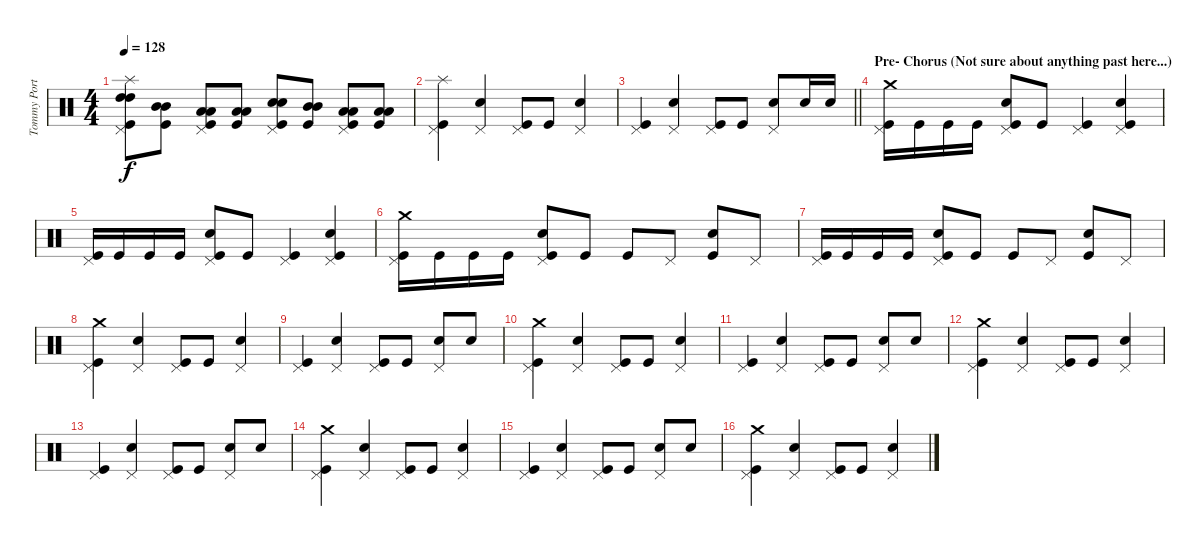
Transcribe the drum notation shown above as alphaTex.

\track ("Tommy Portimo - Drums" "Tommy Port") {instrument percussion}
\staff {score}
\articulation defaults
\ts (4 4)
\tempo 128
\clef neutral
\ks c
("Splash (hit)" "Pedal Hi-Hat (hit)" "High Tom (hit)" "High Tom (hit)" "Kick (hit)").8{dy f} ("Mid Tom (hit)" "Mid Tom (hit)" "Kick (hit)").8 ("Pedal Hi-Hat (hit)" "Low Tom (hit)" "Low Tom (hit)" "Kick (hit)").8 ("Low Tom (hit)" "Low Tom (hit)" "Kick (hit)").8 ("Pedal Hi-Hat (hit)" "Electric Snare (hit)" "Electric Snare (hit)" "Kick (hit)").8 ("Mid Tom (hit)" "Mid Tom (hit)" "Kick (hit)").8 ("Pedal Hi-Hat (hit)" "Low Tom (hit)" "Low Tom (hit)" "Kick (hit)").8 ("Low Tom (hit)" "Low Tom (hit)" "Kick (hit)").8 |
("Splash (hit)" "Pedal Hi-Hat (hit)" "Kick (hit)").4 ("Pedal Hi-Hat (hit)" "Electric Snare (hit)").4 ("Pedal Hi-Hat (hit)" "Kick (hit)").8 "Kick (hit)".8 ("Pedal Hi-Hat (hit)" "Electric Snare (hit)").4 |
\barLineRight lightlight
("Pedal Hi-Hat (hit)" "Kick (hit)").4 ("Pedal Hi-Hat (hit)" "Electric Snare (hit)").4 ("Pedal Hi-Hat (hit)" "Kick (hit)").8 "Kick (hit)".8 ("Pedal Hi-Hat (hit)" "Electric Snare (hit)").8 "Electric Snare (hit)".16 "Electric Snare (hit)".16 |
\section ("" "Pre- Chorus (Not sure about anything past here...)")
("Crash medium (hit)" "Pedal Hi-Hat (hit)" "Kick (hit)").16 "Kick (hit)".16 "Kick (hit)".16 "Kick (hit)".16 ("Pedal Hi-Hat (hit)" "Electric Snare (hit)" "Kick (hit)").8 "Kick (hit)".8 ("Pedal Hi-Hat (hit)" "Kick (hit)").4 ("Pedal Hi-Hat (hit)" "Electric Snare (hit)" "Kick (hit)").4 |
("Pedal Hi-Hat (hit)" "Kick (hit)").16 "Kick (hit)".16 "Kick (hit)".16 "Kick (hit)".16 ("Pedal Hi-Hat (hit)" "Electric Snare (hit)" "Kick (hit)").8 "Kick (hit)".8 ("Pedal Hi-Hat (hit)" "Kick (hit)").4 ("Pedal Hi-Hat (hit)" "Electric Snare (hit)" "Kick (hit)").4 |
("Crash medium (hit)" "Pedal Hi-Hat (hit)" "Kick (hit)").16 "Kick (hit)".16 "Kick (hit)".16 "Kick (hit)".16 ("Pedal Hi-Hat (hit)" "Electric Snare (hit)" "Kick (hit)").8 "Kick (hit)".8 "Kick (hit)".8 "Pedal Hi-Hat (hit)".8 ("Electric Snare (hit)" "Kick (hit)").8 "Pedal Hi-Hat (hit)".8 |
("Pedal Hi-Hat (hit)" "Kick (hit)").16 "Kick (hit)".16 "Kick (hit)".16 "Kick (hit)".16 ("Pedal Hi-Hat (hit)" "Electric Snare (hit)" "Kick (hit)").8 "Kick (hit)".8 "Kick (hit)".8 "Pedal Hi-Hat (hit)".8 ("Electric Snare (hit)" "Kick (hit)").8 "Pedal Hi-Hat (hit)".8 |
("Crash medium (hit)" "Pedal Hi-Hat (hit)" "Kick (hit)").4 ("Pedal Hi-Hat (hit)" "Electric Snare (hit)").4 ("Pedal Hi-Hat (hit)" "Kick (hit)").8 "Kick (hit)".8 ("Pedal Hi-Hat (hit)" "Electric Snare (hit)").4 |
("Pedal Hi-Hat (hit)" "Kick (hit)").4 ("Pedal Hi-Hat (hit)" "Electric Snare (hit)").4 ("Pedal Hi-Hat (hit)" "Kick (hit)").8 "Kick (hit)".8 ("Pedal Hi-Hat (hit)" "Electric Snare (hit)").8 "Electric Snare (hit)".8 |
("Crash medium (hit)" "Pedal Hi-Hat (hit)" "Kick (hit)").4 ("Pedal Hi-Hat (hit)" "Electric Snare (hit)").4 ("Pedal Hi-Hat (hit)" "Kick (hit)").8 "Kick (hit)".8 ("Pedal Hi-Hat (hit)" "Electric Snare (hit)").4 |
("Pedal Hi-Hat (hit)" "Kick (hit)").4 ("Pedal Hi-Hat (hit)" "Electric Snare (hit)").4 ("Pedal Hi-Hat (hit)" "Kick (hit)").8 "Kick (hit)".8 ("Pedal Hi-Hat (hit)" "Electric Snare (hit)").8 "Electric Snare (hit)".8 |
("Crash medium (hit)" "Pedal Hi-Hat (hit)" "Kick (hit)").4 ("Pedal Hi-Hat (hit)" "Electric Snare (hit)").4 ("Pedal Hi-Hat (hit)" "Kick (hit)").8 "Kick (hit)".8 ("Pedal Hi-Hat (hit)" "Electric Snare (hit)").4 |
("Pedal Hi-Hat (hit)" "Kick (hit)").4 ("Pedal Hi-Hat (hit)" "Electric Snare (hit)").4 ("Pedal Hi-Hat (hit)" "Kick (hit)").8 "Kick (hit)".8 ("Pedal Hi-Hat (hit)" "Electric Snare (hit)").8 "Electric Snare (hit)".8 |
("Crash medium (hit)" "Pedal Hi-Hat (hit)" "Kick (hit)").4 ("Pedal Hi-Hat (hit)" "Electric Snare (hit)").4 ("Pedal Hi-Hat (hit)" "Kick (hit)").8 "Kick (hit)".8 ("Pedal Hi-Hat (hit)" "Electric Snare (hit)").4 |
("Pedal Hi-Hat (hit)" "Kick (hit)").4 ("Pedal Hi-Hat (hit)" "Electric Snare (hit)").4 ("Pedal Hi-Hat (hit)" "Kick (hit)").8 "Kick (hit)".8 ("Pedal Hi-Hat (hit)" "Electric Snare (hit)").8 "Electric Snare (hit)".8 |
("Crash medium (hit)" "Pedal Hi-Hat (hit)" "Kick (hit)").4 ("Pedal Hi-Hat (hit)" "Electric Snare (hit)").4 ("Pedal Hi-Hat (hit)" "Kick (hit)").8 "Kick (hit)".8 ("Pedal Hi-Hat (hit)" "Electric Snare (hit)").4
